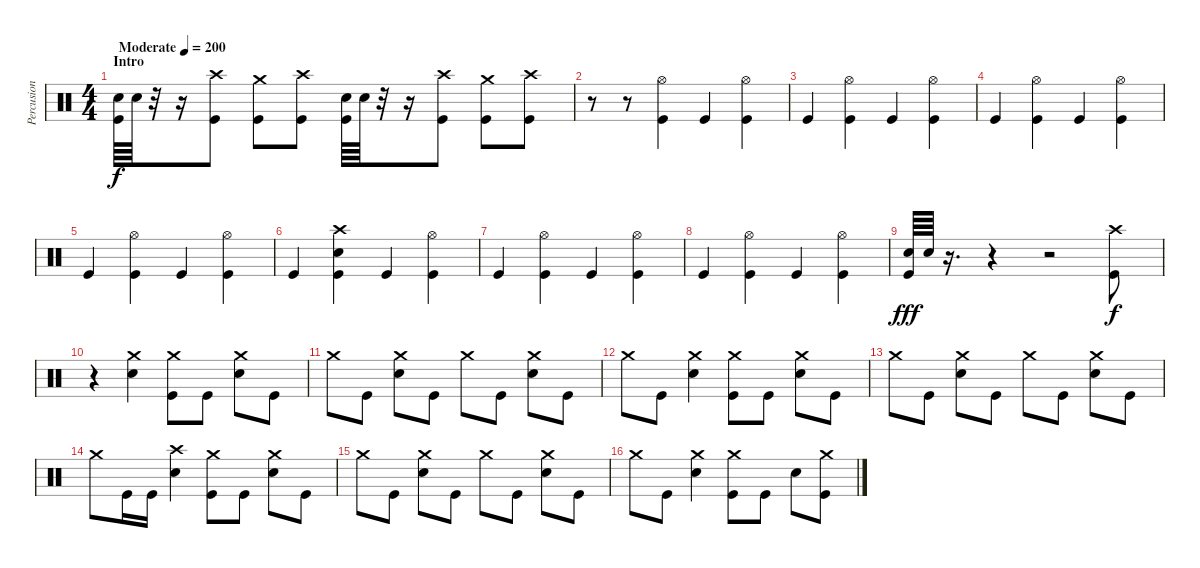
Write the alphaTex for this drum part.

\track ("Percusion" "Percusion") {instrument percussion}
\staff {score}
\articulation defaults
\ts (4 4)
\section ("" "Intro")
\tempo (200 "Moderate")
\clef neutral
\ks c
("Snare (hit) 2" "Kick (hit)").64{dy f} "Snare (hit) 2".64 r.32 r.16 ("Kick (hit)" "Crash high (hit)").8 ("Crash medium (hit)" "Kick (hit)").8 ("Kick (hit)" "Crash high (hit)").8 ("Snare (hit) 2" "Kick (hit)").64 "Snare (hit) 2".64 r.32 r.16 ("Kick (hit)" "Crash high (hit)").8 ("Crash medium (hit)" "Kick (hit)").8 ("Kick (hit)" "Crash high (hit)").8 |
r.8 r.8 ("Kick (hit)" "Hi-Hat (open)").4 "Kick (hit)".4 ("Kick (hit)" "Hi-Hat (open)").4 |
"Kick (hit)".4 ("Kick (hit)" "Hi-Hat (open)").4 "Kick (hit)".4 ("Kick (hit)" "Hi-Hat (open)").4 |
"Kick (hit)".4 ("Kick (hit)" "Hi-Hat (open)").4 "Kick (hit)".4 ("Kick (hit)" "Hi-Hat (open)").4 |
"Kick (hit)".4 ("Kick (hit)" "Hi-Hat (open)").4 "Kick (hit)".4 ("Kick (hit)" "Hi-Hat (open)").4 |
"Kick (hit)".4 ("Kick (hit)" "Crash high (hit)" "Snare (hit) 2").4 "Kick (hit)".4 ("Kick (hit)" "Hi-Hat (open)").4 |
"Kick (hit)".4 ("Kick (hit)" "Hi-Hat (open)").4 "Kick (hit)".4 ("Kick (hit)" "Hi-Hat (open)").4 |
"Kick (hit)".4 ("Kick (hit)" "Hi-Hat (open)").4 "Kick (hit)".4 ("Kick (hit)" "Hi-Hat (open)").4 |
("Snare (hit) 2" "Kick (hit)").64{dy fff} "Snare (hit) 2".64 r.16{d} r.4 r.2 ("Kick (hit)" "Crash high (hit)").8{dy f} |
r.4 ("Crash medium (hit)" "Snare (hit) 2").4 ("Crash medium (hit)" "Kick (hit)").8 "Kick (hit)".8 ("Crash medium (hit)" "Snare (hit) 2").8 "Kick (hit)".8 |
"Crash medium (hit)".8 "Kick (hit)".8 ("Snare (hit) 2" "Crash medium (hit)").8 "Kick (hit)".8 "Crash medium (hit)".8 "Kick (hit)".8 ("Snare (hit) 2" "Crash medium (hit)").8 "Kick (hit)".8 |
"Crash medium (hit)".8 "Kick (hit)".8 ("Snare (hit) 2" "Crash medium (hit)").4 ("Crash medium (hit)" "Kick (hit)").8 "Kick (hit)".8 ("Crash medium (hit)" "Snare (hit) 2").8 "Kick (hit)".8 |
"Crash medium (hit)".8 "Kick (hit)".8 ("Snare (hit) 2" "Crash medium (hit)").8 "Kick (hit)".8 "Crash medium (hit)".8 "Kick (hit)".8 ("Snare (hit) 2" "Crash medium (hit)").8 "Kick (hit)".8 |
"Crash medium (hit)".8 "Kick (hit)".16 "Kick (hit)".16 ("Snare (hit) 2" "Crash high (hit)").4 ("Crash medium (hit)" "Kick (hit)").8 "Kick (hit)".8 ("Crash medium (hit)" "Snare (hit) 2").8 "Kick (hit)".8 |
"Crash medium (hit)".8 "Kick (hit)".8 ("Snare (hit) 2" "Crash medium (hit)").8 "Kick (hit)".8 "Crash medium (hit)".8 "Kick (hit)".8 ("Snare (hit) 2" "Crash medium (hit)").8 "Kick (hit)".8 |
"Crash medium (hit)".8 "Kick (hit)".8 ("Snare (hit) 2" "Crash medium (hit)").4 ("Crash medium (hit)" "Kick (hit)").8 "Kick (hit)".8 "Snare (hit) 2".8 ("Kick (hit)" "Crash medium (hit)").8
